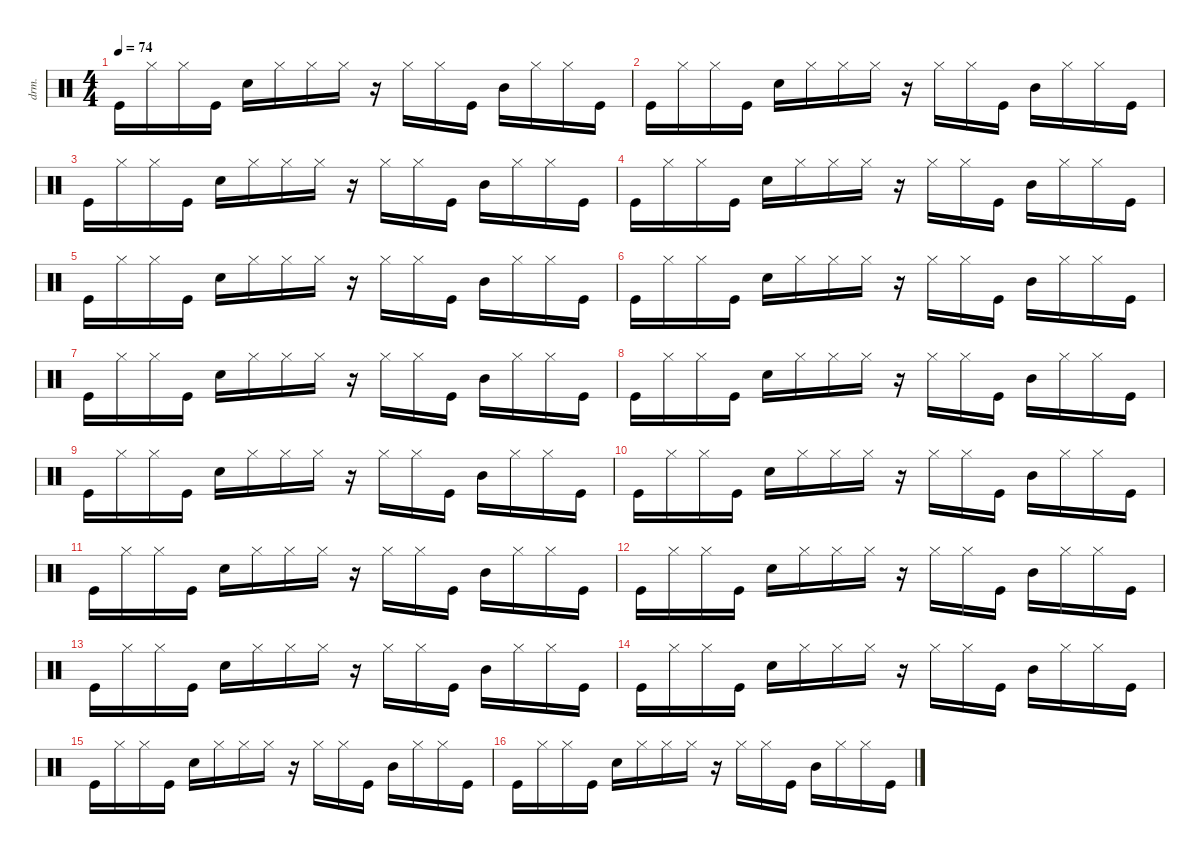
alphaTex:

\defaultSystemsLayout 4
\hideDynamics
\bracketExtendMode nobrackets
\otherSystemsTrackNameOrientation horizontal
\track ("Drums" "drm.") {instrument percussion}
\staff {score}
\articulation defaults
\ts (4 4)
\tempo 74
\clef neutral
\ks c "Kick (hit)".16{dy f} "Hi-Hat (closed)".16 "Hi-Hat (closed)".16 "Kick (hit)".16 "Snare (hit) 2".16 "Hi-Hat (closed)".16 "Hi-Hat (closed)".16 "Hi-Hat (closed)".16
r.16 "Hi-Hat (closed)".16 "Hi-Hat (closed)".16 "Kick (hit)".16 "Mid Tom (hit)".16 "Hi-Hat (closed)".16 "Hi-Hat (closed)".16 "Kick (hit)".16 |
"Kick (hit)".16 "Hi-Hat (closed)".16 "Hi-Hat (closed)".16 "Kick (hit)".16 "Snare (hit) 2".16 "Hi-Hat (closed)".16 "Hi-Hat (closed)".16 "Hi-Hat (closed)".16 r.16 "Hi-Hat (closed)".16 "Hi-Hat (closed)".16 "Kick (hit)".16 "Mid Tom (hit)".16 "Hi-Hat (closed)".16 "Hi-Hat (closed)".16 "Kick (hit)".16 |
"Kick (hit)".16 "Hi-Hat (closed)".16 "Hi-Hat (closed)".16 "Kick (hit)".16 "Snare (hit) 2".16 "Hi-Hat (closed)".16 "Hi-Hat (closed)".16 "Hi-Hat (closed)".16 r.16 "Hi-Hat (closed)".16 "Hi-Hat (closed)".16 "Kick (hit)".16 "Mid Tom (hit)".16 "Hi-Hat (closed)".16 "Hi-Hat (closed)".16 "Kick (hit)".16 |
"Kick (hit)".16 "Hi-Hat (closed)".16 "Hi-Hat (closed)".16 "Kick (hit)".16 "Snare (hit) 2".16 "Hi-Hat (closed)".16 "Hi-Hat (closed)".16 "Hi-Hat (closed)".16 r.16 "Hi-Hat (closed)".16 "Hi-Hat (closed)".16 "Kick (hit)".16 "Mid Tom (hit)".16 "Hi-Hat (closed)".16 "Hi-Hat (closed)".16 "Kick (hit)".16 |
"Kick (hit)".16 "Hi-Hat (closed)".16 "Hi-Hat (closed)".16 "Kick (hit)".16 "Snare (hit) 2".16 "Hi-Hat (closed)".16 "Hi-Hat (closed)".16 "Hi-Hat (closed)".16 r.16 "Hi-Hat (closed)".16 "Hi-Hat (closed)".16 "Kick (hit)".16 "Mid Tom (hit)".16 "Hi-Hat (closed)".16 "Hi-Hat (closed)".16 "Kick (hit)".16 |
"Kick (hit)".16 "Hi-Hat (closed)".16 "Hi-Hat (closed)".16 "Kick (hit)".16 "Snare (hit) 2".16 "Hi-Hat (closed)".16 "Hi-Hat (closed)".16 "Hi-Hat (closed)".16 r.16 "Hi-Hat (closed)".16 "Hi-Hat (closed)".16 "Kick (hit)".16 "Mid Tom (hit)".16 "Hi-Hat (closed)".16 "Hi-Hat (closed)".16 "Kick (hit)".16 |
"Kick (hit)".16 "Hi-Hat (closed)".16 "Hi-Hat (closed)".16 "Kick (hit)".16 "Snare (hit) 2".16 "Hi-Hat (closed)".16 "Hi-Hat (closed)".16 "Hi-Hat (closed)".16 r.16 "Hi-Hat (closed)".16 "Hi-Hat (closed)".16 "Kick (hit)".16 "Mid Tom (hit)".16 "Hi-Hat (closed)".16 "Hi-Hat (closed)".16 "Kick (hit)".16 |
"Kick (hit)".16 "Hi-Hat (closed)".16 "Hi-Hat (closed)".16 "Kick (hit)".16 "Snare (hit) 2".16 "Hi-Hat (closed)".16 "Hi-Hat (closed)".16 "Hi-Hat (closed)".16 r.16 "Hi-Hat (closed)".16 "Hi-Hat (closed)".16 "Kick (hit)".16 "Mid Tom (hit)".16 "Hi-Hat (closed)".16 "Hi-Hat (closed)".16 "Kick (hit)".16 |
"Kick (hit)".16 "Hi-Hat (closed)".16 "Hi-Hat (closed)".16 "Kick (hit)".16 "Snare (hit) 2".16 "Hi-Hat (closed)".16 "Hi-Hat (closed)".16 "Hi-Hat (closed)".16 r.16 "Hi-Hat (closed)".16 "Hi-Hat (closed)".16 "Kick (hit)".16 "Mid Tom (hit)".16 "Hi-Hat (closed)".16 "Hi-Hat (closed)".16 "Kick (hit)".16 |
"Kick (hit)".16 "Hi-Hat (closed)".16 "Hi-Hat (closed)".16 "Kick (hit)".16 "Snare (hit) 2".16 "Hi-Hat (closed)".16 "Hi-Hat (closed)".16 "Hi-Hat (closed)".16 r.16 "Hi-Hat (closed)".16 "Hi-Hat (closed)".16 "Kick (hit)".16 "Mid Tom (hit)".16 "Hi-Hat (closed)".16 "Hi-Hat (closed)".16 "Kick (hit)".16 |
"Kick (hit)".16 "Hi-Hat (closed)".16 "Hi-Hat (closed)".16 "Kick (hit)".16 "Snare (hit) 2".16 "Hi-Hat (closed)".16 "Hi-Hat (closed)".16 "Hi-Hat (closed)".16 r.16 "Hi-Hat (closed)".16 "Hi-Hat (closed)".16 "Kick (hit)".16 "Mid Tom (hit)".16 "Hi-Hat (closed)".16 "Hi-Hat (closed)".16 "Kick (hit)".16 |
"Kick (hit)".16 "Hi-Hat (closed)".16 "Hi-Hat (closed)".16 "Kick (hit)".16 "Snare (hit) 2".16 "Hi-Hat (closed)".16 "Hi-Hat (closed)".16 "Hi-Hat (closed)".16 r.16 "Hi-Hat (closed)".16 "Hi-Hat (closed)".16 "Kick (hit)".16 "Mid Tom (hit)".16 "Hi-Hat (closed)".16 "Hi-Hat (closed)".16 "Kick (hit)".16 |
"Kick (hit)".16 "Hi-Hat (closed)".16 "Hi-Hat (closed)".16 "Kick (hit)".16 "Snare (hit) 2".16 "Hi-Hat (closed)".16 "Hi-Hat (closed)".16 "Hi-Hat (closed)".16 r.16 "Hi-Hat (closed)".16 "Hi-Hat (closed)".16 "Kick (hit)".16 "Mid Tom (hit)".16 "Hi-Hat (closed)".16 "Hi-Hat (closed)".16 "Kick (hit)".16 |
"Kick (hit)".16 "Hi-Hat (closed)".16 "Hi-Hat (closed)".16 "Kick (hit)".16 "Snare (hit) 2".16 "Hi-Hat (closed)".16 "Hi-Hat (closed)".16 "Hi-Hat (closed)".16 r.16 "Hi-Hat (closed)".16 "Hi-Hat (closed)".16 "Kick (hit)".16 "Mid Tom (hit)".16 "Hi-Hat (closed)".16 "Hi-Hat (closed)".16 "Kick (hit)".16 |
"Kick (hit)".16 "Hi-Hat (closed)".16 "Hi-Hat (closed)".16 "Kick (hit)".16 "Snare (hit) 2".16 "Hi-Hat (closed)".16 "Hi-Hat (closed)".16 "Hi-Hat (closed)".16 r.16 "Hi-Hat (closed)".16 "Hi-Hat (closed)".16 "Kick (hit)".16 "Mid Tom (hit)".16 "Hi-Hat (closed)".16 "Hi-Hat (closed)".16 "Kick (hit)".16 |
"Kick (hit)".16 "Hi-Hat (closed)".16 "Hi-Hat (closed)".16 "Kick (hit)".16 "Snare (hit) 2".16 "Hi-Hat (closed)".16 "Hi-Hat (closed)".16 "Hi-Hat (closed)".16 r.16 "Hi-Hat (closed)".16 "Hi-Hat (closed)".16 "Kick (hit)".16 "Mid Tom (hit)".16 "Hi-Hat (closed)".16 "Hi-Hat (closed)".16 "Kick (hit)".16
